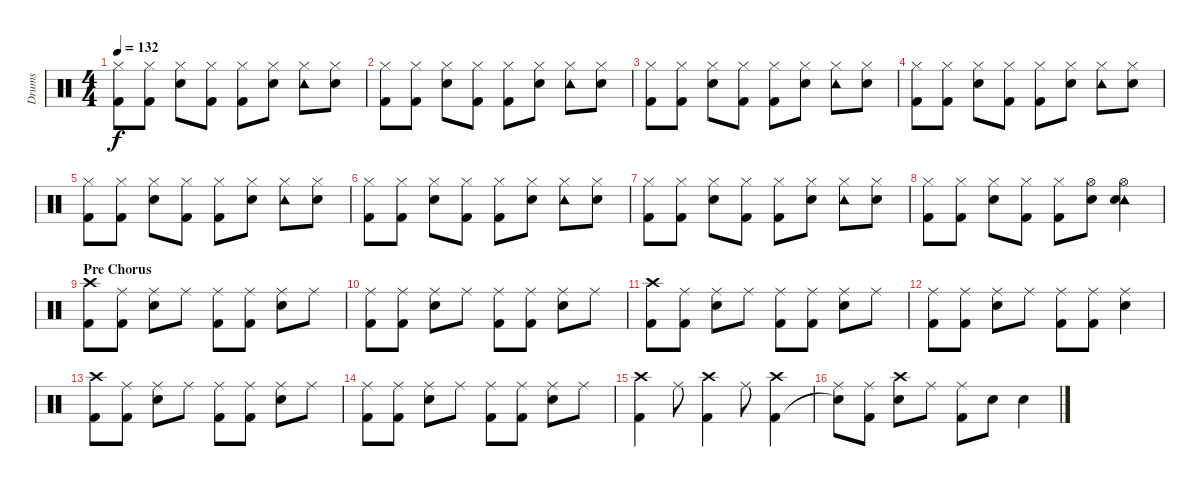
\track ("Drums" "Drums") {instrument percussion}
\staff {score}
\articulation defaults
\ts (4 4)
\tempo 132
\clef neutral
\ks c
("Hi-Hat (closed)" "Kick (hit) 2").8{dy f} ("Hi-Hat (closed)" "Kick (hit) 2").8 ("Hi-Hat (closed)" "Electric Snare (hit)").8 ("Hi-Hat (closed)" "Kick (hit) 2").8 ("Hi-Hat (closed)" "Kick (hit) 2").8 ("Hi-Hat (closed)" "Electric Snare (hit)").8 ("Hi-Hat (closed)" "Tambourine (hit)").8 ("Hi-Hat (closed)" "Electric Snare (hit)").8 |
("Hi-Hat (closed)" "Kick (hit) 2").8 ("Hi-Hat (closed)" "Kick (hit) 2").8 ("Hi-Hat (closed)" "Electric Snare (hit)").8 ("Hi-Hat (closed)" "Kick (hit) 2").8 ("Hi-Hat (closed)" "Kick (hit) 2").8 ("Hi-Hat (closed)" "Electric Snare (hit)").8 ("Hi-Hat (closed)" "Tambourine (hit)").8 ("Hi-Hat (closed)" "Electric Snare (hit)").8 |
("Hi-Hat (closed)" "Kick (hit) 2").8 ("Hi-Hat (closed)" "Kick (hit) 2").8 ("Hi-Hat (closed)" "Electric Snare (hit)").8 ("Hi-Hat (closed)" "Kick (hit) 2").8 ("Hi-Hat (closed)" "Kick (hit) 2").8 ("Hi-Hat (closed)" "Electric Snare (hit)").8 ("Hi-Hat (closed)" "Tambourine (hit)").8 ("Hi-Hat (closed)" "Electric Snare (hit)").8 |
("Hi-Hat (closed)" "Kick (hit) 2").8 ("Hi-Hat (closed)" "Kick (hit) 2").8 ("Hi-Hat (closed)" "Electric Snare (hit)").8 ("Hi-Hat (closed)" "Kick (hit) 2").8 ("Hi-Hat (closed)" "Kick (hit) 2").8 ("Hi-Hat (closed)" "Electric Snare (hit)").8 ("Hi-Hat (closed)" "Tambourine (hit)").8 ("Hi-Hat (closed)" "Electric Snare (hit)").8 |
("Hi-Hat (closed)" "Kick (hit) 2").8 ("Hi-Hat (closed)" "Kick (hit) 2").8 ("Hi-Hat (closed)" "Electric Snare (hit)").8 ("Hi-Hat (closed)" "Kick (hit) 2").8 ("Hi-Hat (closed)" "Kick (hit) 2").8 ("Hi-Hat (closed)" "Electric Snare (hit)").8 ("Hi-Hat (closed)" "Tambourine (hit)").8 ("Hi-Hat (closed)" "Electric Snare (hit)").8 |
("Hi-Hat (closed)" "Kick (hit) 2").8 ("Hi-Hat (closed)" "Kick (hit) 2").8 ("Hi-Hat (closed)" "Electric Snare (hit)").8 ("Hi-Hat (closed)" "Kick (hit) 2").8 ("Hi-Hat (closed)" "Kick (hit) 2").8 ("Hi-Hat (closed)" "Electric Snare (hit)").8 ("Hi-Hat (closed)" "Tambourine (hit)").8 ("Hi-Hat (closed)" "Electric Snare (hit)").8 |
("Hi-Hat (closed)" "Kick (hit) 2").8 ("Hi-Hat (closed)" "Kick (hit) 2").8 ("Hi-Hat (closed)" "Electric Snare (hit)").8 ("Hi-Hat (closed)" "Kick (hit) 2").8 ("Hi-Hat (closed)" "Kick (hit) 2").8 ("Hi-Hat (closed)" "Electric Snare (hit)").8 ("Hi-Hat (closed)" "Tambourine (hit)").8 ("Hi-Hat (closed)" "Electric Snare (hit)").8 |
("Hi-Hat (closed)" "Kick (hit) 2").8 ("Hi-Hat (closed)" "Kick (hit) 2").8 ("Hi-Hat (closed)" "Electric Snare (hit)").8 ("Hi-Hat (closed)" "Kick (hit) 2").8 ("Hi-Hat (closed)" "Kick (hit) 2").8 ("Hi-Hat (open)" "Electric Snare (hit)").8 ("Hi-Hat (open)" "Tambourine (hit)" "Electric Snare (hit)").4 |
\section ("" "Pre Chorus")
("Crash high (hit)" "Kick (hit) 2").8 ("Ride (middle)" "Kick (hit) 2").8 ("Ride (middle)" "Electric Snare (hit)").8 "Ride (middle)".8 ("Ride (middle)" "Kick (hit) 2").8 ("Ride (middle)" "Kick (hit) 2").8 ("Ride (middle)" "Electric Snare (hit)").8 "Ride (middle)".8 |
("Ride (middle)" "Kick (hit) 2").8 ("Ride (middle)" "Kick (hit) 2").8 ("Ride (middle)" "Electric Snare (hit)").8 "Ride (middle)".8 ("Ride (middle)" "Kick (hit) 2").8 ("Ride (middle)" "Kick (hit) 2").8 ("Ride (middle)" "Electric Snare (hit)").8 "Ride (middle)".8 |
("Crash high (hit)" "Kick (hit) 2").8 ("Ride (middle)" "Kick (hit) 2").8 ("Ride (middle)" "Electric Snare (hit)").8 "Ride (middle)".8 ("Ride (middle)" "Kick (hit) 2").8 ("Ride (middle)" "Kick (hit) 2").8 ("Ride (middle)" "Electric Snare (hit)").8 "Ride (middle)".8 |
("Ride (middle)" "Kick (hit) 2").8 ("Ride (middle)" "Kick (hit) 2").8 ("Ride (middle)" "Electric Snare (hit)").8 "Ride (middle)".8 ("Ride (middle)" "Kick (hit) 2").8 ("Ride (middle)" "Kick (hit) 2").8 ("Ride (middle)" "Electric Snare (hit)").4 |
("Crash high (hit)" "Kick (hit) 2").8 ("Ride (middle)" "Kick (hit) 2").8 ("Ride (middle)" "Electric Snare (hit)").8 "Ride (middle)".8 ("Ride (middle)" "Kick (hit) 2").8 ("Ride (middle)" "Kick (hit) 2").8 ("Ride (middle)" "Electric Snare (hit)").8 "Ride (middle)".8 |
("Ride (middle)" "Kick (hit) 2").8 ("Ride (middle)" "Kick (hit) 2").8 ("Ride (middle)" "Electric Snare (hit)").8 "Ride (middle)".8 ("Ride (middle)" "Kick (hit) 2").8 ("Ride (middle)" "Kick (hit) 2").8 ("Ride (middle)" "Electric Snare (hit)").8 "Ride (middle)".8 |
("Crash high (hit)" "Kick (hit) 2").4 "Ride (middle)".8 ("Crash high (hit)" "Kick (hit) 2").4 "Ride (middle)".8 ("Crash high (hit)" "Kick (hit) 2").4 |
("Ride (middle)" "Snare (hit)"{t}).8 ("Ride (middle)" "Kick (hit) 2").8 ("Crash high (hit)" "Electric Snare (hit)").8 "Ride (middle)".8 ("Ride (middle)" "Kick (hit) 2").8 "Electric Snare (hit)".8 "Electric Snare (hit)".4
